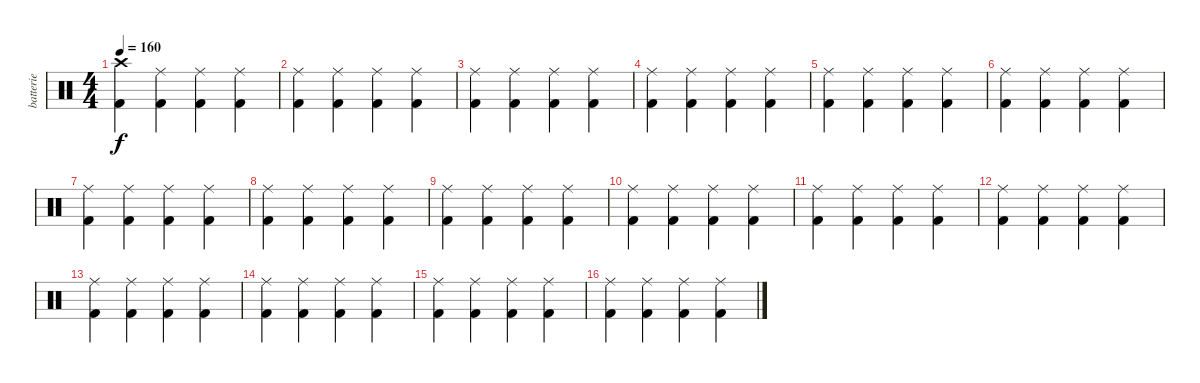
\track ("batterie" "batterie") {instrument percussion}
\staff {score}
\articulation defaults
\ts (4 4)
\tempo 160
\clef neutral
\ks c
("Kick (hit) 2" "Crash high (hit)").4{dy f} ("Kick (hit) 2" "Ride (middle)").4 ("Kick (hit) 2" "Ride (middle)").4 ("Kick (hit) 2" "Ride (middle)").4 |
("Kick (hit) 2" "Ride (middle)").4 ("Kick (hit) 2" "Ride (middle)").4 ("Kick (hit) 2" "Ride (middle)").4 ("Kick (hit) 2" "Ride (middle)").4 |
("Kick (hit) 2" "Ride (middle)").4 ("Kick (hit) 2" "Ride (middle)").4 ("Kick (hit) 2" "Ride (middle)").4 ("Kick (hit) 2" "Ride (middle)").4 |
("Kick (hit) 2" "Ride (middle)").4 ("Kick (hit) 2" "Ride (middle)").4 ("Kick (hit) 2" "Ride (middle)").4 ("Kick (hit) 2" "Ride (middle)").4 |
("Kick (hit) 2" "Ride (middle)").4 ("Kick (hit) 2" "Ride (middle)").4 ("Kick (hit) 2" "Ride (middle)").4 ("Kick (hit) 2" "Ride (middle)").4 |
("Kick (hit) 2" "Ride (middle)").4 ("Kick (hit) 2" "Ride (middle)").4 ("Kick (hit) 2" "Ride (middle)").4 ("Kick (hit) 2" "Ride (middle)").4 |
("Kick (hit) 2" "Ride (middle)").4 ("Kick (hit) 2" "Ride (middle)").4 ("Kick (hit) 2" "Ride (middle)").4 ("Kick (hit) 2" "Ride (middle)").4 |
("Kick (hit) 2" "Ride (middle)").4 ("Kick (hit) 2" "Ride (middle)").4 ("Kick (hit) 2" "Ride (middle)").4 ("Kick (hit) 2" "Ride (middle)").4 |
("Kick (hit) 2" "Ride (middle)").4 ("Kick (hit) 2" "Ride (middle)").4 ("Kick (hit) 2" "Ride (middle)").4 ("Kick (hit) 2" "Ride (middle)").4 |
("Kick (hit) 2" "Ride (middle)").4 ("Kick (hit) 2" "Ride (middle)").4 ("Kick (hit) 2" "Ride (middle)").4 ("Kick (hit) 2" "Ride (middle)").4 |
("Kick (hit) 2" "Ride (middle)").4 ("Kick (hit) 2" "Ride (middle)").4 ("Kick (hit) 2" "Ride (middle)").4 ("Kick (hit) 2" "Ride (middle)").4 |
("Kick (hit) 2" "Ride (middle)").4 ("Kick (hit) 2" "Ride (middle)").4 ("Kick (hit) 2" "Ride (middle)").4 ("Kick (hit) 2" "Ride (middle)").4 |
("Kick (hit) 2" "Ride (middle)").4 ("Kick (hit) 2" "Ride (middle)").4 ("Kick (hit) 2" "Ride (middle)").4 ("Kick (hit) 2" "Ride (middle)").4 |
("Kick (hit) 2" "Ride (middle)").4 ("Kick (hit) 2" "Ride (middle)").4 ("Kick (hit) 2" "Ride (middle)").4 ("Kick (hit) 2" "Ride (middle)").4 |
("Kick (hit) 2" "Ride (middle)").4 ("Kick (hit) 2" "Ride (middle)").4 ("Kick (hit) 2" "Ride (middle)").4 ("Kick (hit) 2" "Ride (middle)").4 |
("Kick (hit) 2" "Ride (middle)").4 ("Kick (hit) 2" "Ride (middle)").4 ("Kick (hit) 2" "Ride (middle)").4 ("Kick (hit) 2" "Ride (middle)").4
